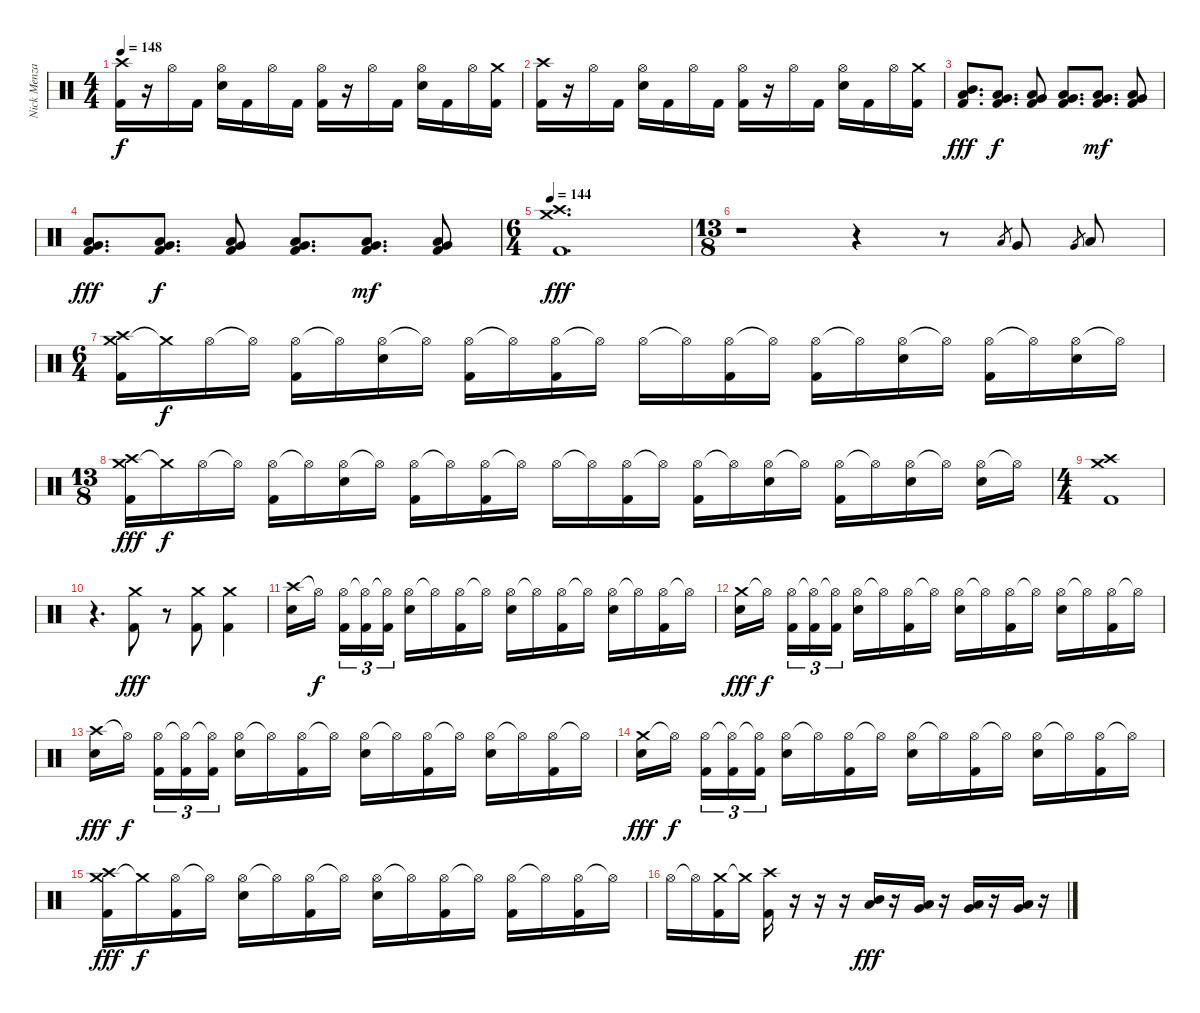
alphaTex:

\track ("Nick Menza" "Nick Menza") {instrument percussion}
\staff {score}
\articulation defaults
\ts (4 4)
\tempo 148
\clef neutral
\ks c
("Crash high (hit)" "Kick (hit) 2").16{dy f} r.16 "Hi-Hat (open)".16 "Kick (hit) 2".16 ("Hi-Hat (open)" "Electric Snare (hit)").16 "Kick (hit) 2".16 "Hi-Hat (open)".16 "Kick (hit) 2".16 ("Hi-Hat (open)" "Kick (hit) 2").16 r.16 "Hi-Hat (open)".16 "Kick (hit) 2".16 ("Hi-Hat (open)" "Electric Snare (hit)").16 "Kick (hit) 2".16 "Hi-Hat (open)".16 ("Crash medium (hit)" "Kick (hit) 2").16 |
("Crash high (hit)" "Kick (hit) 2").16 r.16 "Hi-Hat (open)".16 "Kick (hit) 2".16 ("Hi-Hat (open)" "Electric Snare (hit)").16 "Kick (hit) 2".16 "Hi-Hat (open)".16 "Kick (hit) 2".16 ("Hi-Hat (open)" "Kick (hit) 2").16 r.16 "Hi-Hat (open)".16 "Kick (hit) 2".16 ("Hi-Hat (open)" "Electric Snare (hit)").16 "Kick (hit) 2".16 "Hi-Hat (open)".16 ("Crash medium (hit)" "Kick (hit) 2").16 |
("Low Tom (hit)" "Mid Tom (hit)" "Kick (hit) 2").8{d dy fff} ("Very Low Tom (hit)" "Low Tom (hit)" "Kick (hit) 2").8{d dy f} ("Low Floor Tom (hit)" "Very Low Tom (hit)" "Kick (hit) 2").8 ("Very Low Tom (hit)" "Low Tom (hit)" "Kick (hit) 2").8{d} ("Low Floor Tom (hit)" "Very Low Tom (hit)" "Kick (hit) 2").8{d dy mf} ("Low Floor Tom (hit)" "Very Low Tom (hit)" "Kick (hit) 2").8 |
("Low Floor Tom (hit)" "Very Low Tom (hit)" "Kick (hit) 2").8{d dy fff} ("Low Floor Tom (hit)" "Very Low Tom (hit)" "Kick (hit) 2").8{d dy f} ("Low Floor Tom (hit)" "Very Low Tom (hit)" "Kick (hit) 2").8 ("Low Floor Tom (hit)" "Very Low Tom (hit)" "Kick (hit) 2").8{d} ("Low Floor Tom (hit)" "Very Low Tom (hit)" "Kick (hit) 2").8{d dy mf} ("Low Floor Tom (hit)" "Very Low Tom (hit)" "Kick (hit) 2").8 |
\ts (6 4)
\tempo 144
("Crash medium (hit)" "Crash high (hit)" "Kick (hit) 2").1{d dy fff} |
\ts (13 8)
r.1 r.4 r.8 "Low Tom (hit)".8{gr} "Very Low Tom (hit)".8 "Very Low Tom (hit)".8{gr} "Low Floor Tom (hit)".8 |
\ts (6 4)
("Crash medium (hit)" "Crash high (hit)" "Kick (hit) 2").16 "Crash medium (hit)"{t}.16{dy f} "Hi-Hat (open)".16 "Hi-Hat (open)"{t}.16 ("Hi-Hat (open)" "Kick (hit) 2").16 "Hi-Hat (open)"{t}.16 ("Hi-Hat (open)" "Electric Snare (hit)").16 "Hi-Hat (open)"{t}.16 ("Hi-Hat (open)" "Kick (hit) 2").16 "Hi-Hat (open)"{t}.16 ("Hi-Hat (open)" "Kick (hit) 2").16 "Hi-Hat (open)"{t}.16 "Hi-Hat (open)".16 "Hi-Hat (open)"{t}.16 ("Hi-Hat (open)" "Kick (hit) 2").16 "Hi-Hat (open)"{t}.16 ("Hi-Hat (open)" "Kick (hit) 2").16 "Hi-Hat (open)"{t}.16 ("Hi-Hat (open)" "Electric Snare (hit)").16 "Hi-Hat (open)"{t}.16 ("Hi-Hat (open)" "Kick (hit) 2").16 "Hi-Hat (open)"{t}.16 ("Hi-Hat (open)" "Electric Snare (hit)").16 "Hi-Hat (open)"{t}.16 |
\ts (13 8)
("Crash medium (hit)" "Crash high (hit)" "Kick (hit) 2").16{dy fff} "Crash medium (hit)"{t}.16{dy f} "Hi-Hat (open)".16 "Hi-Hat (open)"{t}.16 ("Hi-Hat (open)" "Kick (hit) 2").16 "Hi-Hat (open)"{t}.16 ("Hi-Hat (open)" "Electric Snare (hit)").16 "Hi-Hat (open)"{t}.16 ("Hi-Hat (open)" "Kick (hit) 2").16 "Hi-Hat (open)"{t}.16 ("Hi-Hat (open)" "Kick (hit) 2").16 "Hi-Hat (open)"{t}.16 "Hi-Hat (open)".16 "Hi-Hat (open)"{t}.16 ("Hi-Hat (open)" "Kick (hit) 2").16 "Hi-Hat (open)"{t}.16 ("Hi-Hat (open)" "Kick (hit) 2").16 "Hi-Hat (open)"{t}.16 ("Hi-Hat (open)" "Electric Snare (hit)").16 "Hi-Hat (open)"{t}.16 ("Hi-Hat (open)" "Kick (hit) 2").16 "Hi-Hat (open)"{t}.16 ("Hi-Hat (open)" "Electric Snare (hit)").16 "Hi-Hat (open)"{t}.16 ("Hi-Hat (open)" "Electric Snare (hit)").16 "Hi-Hat (open)"{t}.16 |
\ts (4 4)
("Crash high (hit)" "Crash medium (hit)" "Kick (hit) 2").1 |
r.4{d} ("Crash medium (hit)" "Kick (hit) 2").8{dy fff} r.8 ("Crash medium (hit)" "Kick (hit) 2").8 ("Crash medium (hit)" "Kick (hit) 2").4 |
("Crash high (hit)" "Electric Snare (hit)").16 "Hi-Hat (open)"{t}.16{dy f beam splitsecondary} ("Hi-Hat (open)" "Kick (hit) 2").16{tu (3 2)} ("Hi-Hat (open)"{t} "Kick (hit) 2").16{tu (3 2)} ("Hi-Hat (open)"{t} "Kick (hit) 2").16{tu (3 2)} ("Hi-Hat (open)" "Electric Snare (hit)").16 "Hi-Hat (open)"{t}.16 ("Hi-Hat (open)" "Kick (hit) 2").16 "Hi-Hat (open)"{t}.16 ("Hi-Hat (open)" "Electric Snare (hit)").16 "Hi-Hat (open)"{t}.16 ("Hi-Hat (open)" "Kick (hit) 2").16 "Hi-Hat (open)"{t}.16 ("Hi-Hat (open)" "Electric Snare (hit)").16 "Hi-Hat (open)"{t}.16 ("Hi-Hat (open)" "Kick (hit) 2").16 "Hi-Hat (open)"{t}.16 |
("Crash medium (hit)" "Electric Snare (hit)").16{dy fff} "Hi-Hat (open)"{t}.16{dy f beam splitsecondary} ("Hi-Hat (open)" "Kick (hit) 2").16{tu (3 2)} ("Hi-Hat (open)"{t} "Kick (hit) 2").16{tu (3 2)} ("Hi-Hat (open)"{t} "Kick (hit) 2").16{tu (3 2)} ("Hi-Hat (open)" "Electric Snare (hit)").16 "Hi-Hat (open)"{t}.16 ("Hi-Hat (open)" "Kick (hit) 2").16 "Hi-Hat (open)"{t}.16 ("Hi-Hat (open)" "Electric Snare (hit)").16 "Hi-Hat (open)"{t}.16 ("Hi-Hat (open)" "Kick (hit) 2").16 "Hi-Hat (open)"{t}.16 ("Hi-Hat (open)" "Electric Snare (hit)").16 "Hi-Hat (open)"{t}.16 ("Hi-Hat (open)" "Kick (hit) 2").16 "Hi-Hat (open)"{t}.16 |
("Crash high (hit)" "Electric Snare (hit)").16{dy fff} "Hi-Hat (open)"{t}.16{dy f beam splitsecondary} ("Hi-Hat (open)" "Kick (hit) 2").16{tu (3 2)} ("Hi-Hat (open)"{t} "Kick (hit) 2").16{tu (3 2)} ("Hi-Hat (open)"{t} "Kick (hit) 2").16{tu (3 2)} ("Hi-Hat (open)" "Electric Snare (hit)").16 "Hi-Hat (open)"{t}.16 ("Hi-Hat (open)" "Kick (hit) 2").16 "Hi-Hat (open)"{t}.16 ("Hi-Hat (open)" "Electric Snare (hit)").16 "Hi-Hat (open)"{t}.16 ("Hi-Hat (open)" "Kick (hit) 2").16 "Hi-Hat (open)"{t}.16 ("Hi-Hat (open)" "Electric Snare (hit)").16 "Hi-Hat (open)"{t}.16 ("Hi-Hat (open)" "Kick (hit) 2").16 "Hi-Hat (open)"{t}.16 |
("Crash medium (hit)" "Electric Snare (hit)").16{dy fff} "Hi-Hat (open)"{t}.16{dy f beam splitsecondary} ("Hi-Hat (open)" "Kick (hit) 2").16{tu (3 2)} ("Hi-Hat (open)"{t} "Kick (hit) 2").16{tu (3 2)} ("Hi-Hat (open)"{t} "Kick (hit) 2").16{tu (3 2)} ("Hi-Hat (open)" "Electric Snare (hit)").16 "Hi-Hat (open)"{t}.16 ("Hi-Hat (open)" "Kick (hit) 2").16 "Hi-Hat (open)"{t}.16 ("Hi-Hat (open)" "Electric Snare (hit)").16 "Hi-Hat (open)"{t}.16 ("Hi-Hat (open)" "Kick (hit) 2").16 "Hi-Hat (open)"{t}.16 ("Hi-Hat (open)" "Electric Snare (hit)").16 "Hi-Hat (open)"{t}.16 ("Hi-Hat (open)" "Kick (hit) 2").16 "Hi-Hat (open)"{t}.16 |
("Crash medium (hit)" "Crash high (hit)" "Kick (hit) 2").16{dy fff} "Crash medium (hit)"{t}.16{dy f} ("Hi-Hat (open)" "Kick (hit) 2").16 "Hi-Hat (open)"{t}.16 ("Hi-Hat (open)" "Electric Snare (hit)").16 "Hi-Hat (open)"{t}.16 ("Hi-Hat (open)" "Kick (hit) 2").16 "Hi-Hat (open)"{t}.16 ("Hi-Hat (open)" "Electric Snare (hit)").16 "Hi-Hat (open)"{t}.16 ("Hi-Hat (open)" "Kick (hit) 2").16 "Hi-Hat (open)"{t}.16 ("Hi-Hat (open)" "Kick (hit) 2").16 "Hi-Hat (open)"{t}.16 ("Hi-Hat (open)" "Kick (hit) 2").16 "Hi-Hat (open)"{t}.16 |
"Hi-Hat (open)".16 "Hi-Hat (open)"{t}.16 ("Crash medium (hit)" "Kick (hit) 2").16 "Crash medium (hit)"{t}.16 ("Crash high (hit)" "Kick (hit) 2").16 r.16 r.16 r.16 ("Mid Tom (hit)" "Low Tom (hit)").16{dy fff} r.16 ("Low Tom (hit)" "Very Low Tom (hit)").16 r.16 ("Low Tom (hit)" "Very Low Tom (hit)").16 r.16 ("Very Low Tom (hit)" "Low Floor Tom (hit)").16 r.16
